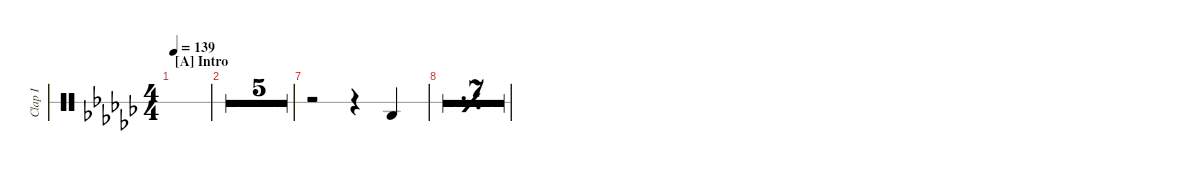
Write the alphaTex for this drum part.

\defaultSystemsLayout 4
\hideDynamics
\bracketExtendMode groupsimilarinstruments
\otherSystemsTrackNameOrientation horizontal
\track ("Hand Clap I" "Clap I") {multiBarRest instrument percussion}
\staff {score 1}
\articulation defaults
\ts (4 4)
\beaming (8 2 2 2 2)
\section ("A" "Intro")
\tempo 139
\clef neutral
\ks gb
|
|
|
|
|
\barLineRight lightlight
|
r.2 r.4 "Hand Clap (hit)"{acc forcenatural}.4 |
\simile simple
|
|
|
|
|
|
\barLineRight lightlight
